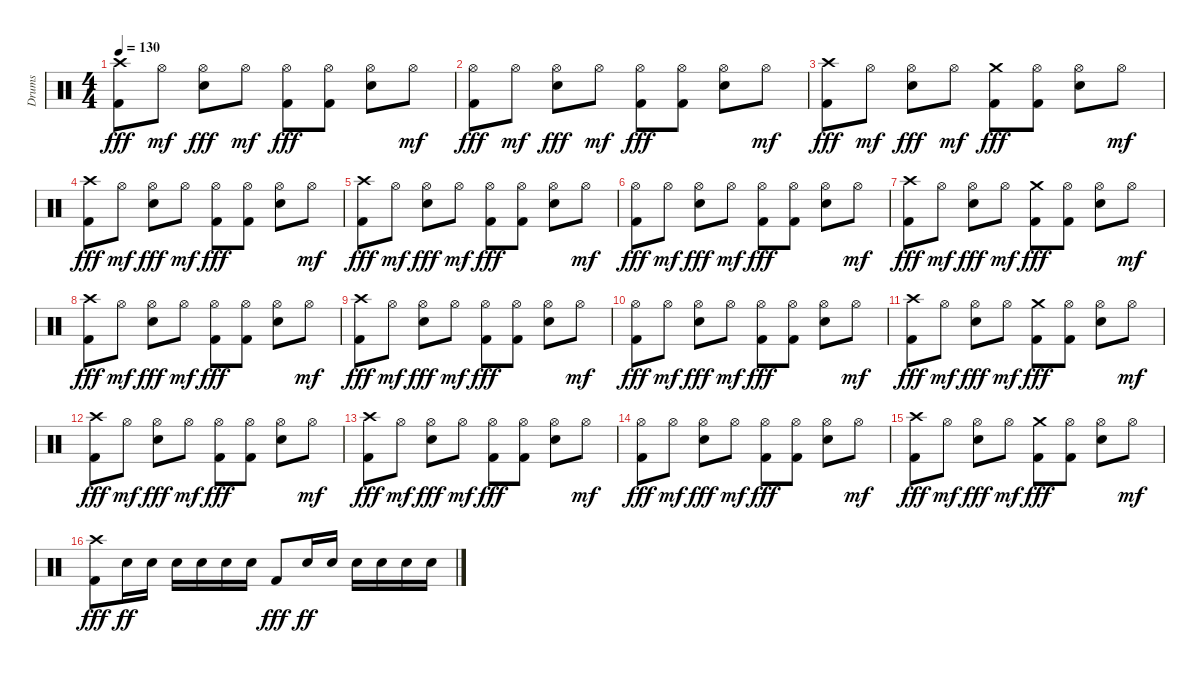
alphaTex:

\track ("Drums" "Drums") {instrument percussion}
\staff {score}
\articulation defaults
\ts (4 4)
\tempo 130
\clef neutral
\ks c
("Crash high (hit)" "Kick (hit) 2").8{dy fff} "Hi-Hat (open)".8{dy mf} ("Hi-Hat (open)" "Snare (hit) 2").8{dy fff} "Hi-Hat (open)".8{dy mf} ("Hi-Hat (open)" "Kick (hit) 2").8{dy fff} ("Hi-Hat (open)" "Kick (hit) 2").8 ("Hi-Hat (open)" "Snare (hit) 2").8 "Hi-Hat (open)".8{dy mf} |
("Hi-Hat (open)" "Kick (hit) 2").8{dy fff} "Hi-Hat (open)".8{dy mf} ("Hi-Hat (open)" "Snare (hit) 2").8{dy fff} "Hi-Hat (open)".8{dy mf} ("Hi-Hat (open)" "Kick (hit) 2").8{dy fff} ("Hi-Hat (open)" "Kick (hit) 2").8 ("Hi-Hat (open)" "Snare (hit) 2").8 "Hi-Hat (open)".8{dy mf} |
("Crash high (hit)" "Kick (hit) 2").8{dy fff} "Hi-Hat (open)".8{dy mf} ("Hi-Hat (open)" "Snare (hit) 2").8{dy fff} "Hi-Hat (open)".8{dy mf} ("Crash medium (hit)" "Kick (hit) 2").8{dy fff} ("Hi-Hat (open)" "Kick (hit) 2").8 ("Hi-Hat (open)" "Snare (hit) 2").8 "Hi-Hat (open)".8{dy mf} |
("Crash high (hit)" "Kick (hit) 2").8{dy fff} "Hi-Hat (open)".8{dy mf} ("Hi-Hat (open)" "Snare (hit) 2").8{dy fff} "Hi-Hat (open)".8{dy mf} ("Hi-Hat (open)" "Kick (hit) 2").8{dy fff} ("Hi-Hat (open)" "Kick (hit) 2").8 ("Hi-Hat (open)" "Snare (hit) 2").8 "Hi-Hat (open)".8{dy mf} |
("Crash high (hit)" "Kick (hit) 2").8{dy fff} "Hi-Hat (open)".8{dy mf} ("Hi-Hat (open)" "Snare (hit) 2").8{dy fff} "Hi-Hat (open)".8{dy mf} ("Hi-Hat (open)" "Kick (hit) 2").8{dy fff} ("Hi-Hat (open)" "Kick (hit) 2").8 ("Hi-Hat (open)" "Snare (hit) 2").8 "Hi-Hat (open)".8{dy mf} |
("Hi-Hat (open)" "Kick (hit) 2").8{dy fff} "Hi-Hat (open)".8{dy mf} ("Hi-Hat (open)" "Snare (hit) 2").8{dy fff} "Hi-Hat (open)".8{dy mf} ("Hi-Hat (open)" "Kick (hit) 2").8{dy fff} ("Hi-Hat (open)" "Kick (hit) 2").8 ("Hi-Hat (open)" "Snare (hit) 2").8 "Hi-Hat (open)".8{dy mf} |
("Crash high (hit)" "Kick (hit) 2").8{dy fff} "Hi-Hat (open)".8{dy mf} ("Hi-Hat (open)" "Snare (hit) 2").8{dy fff} "Hi-Hat (open)".8{dy mf} ("Crash medium (hit)" "Kick (hit) 2").8{dy fff} ("Hi-Hat (open)" "Kick (hit) 2").8 ("Hi-Hat (open)" "Snare (hit) 2").8 "Hi-Hat (open)".8{dy mf} |
("Crash high (hit)" "Kick (hit) 2").8{dy fff} "Hi-Hat (open)".8{dy mf} ("Hi-Hat (open)" "Snare (hit) 2").8{dy fff} "Hi-Hat (open)".8{dy mf} ("Hi-Hat (open)" "Kick (hit) 2").8{dy fff} ("Hi-Hat (open)" "Kick (hit) 2").8 ("Hi-Hat (open)" "Snare (hit) 2").8 "Hi-Hat (open)".8{dy mf} |
("Crash high (hit)" "Kick (hit) 2").8{dy fff} "Hi-Hat (open)".8{dy mf} ("Hi-Hat (open)" "Snare (hit) 2").8{dy fff} "Hi-Hat (open)".8{dy mf} ("Hi-Hat (open)" "Kick (hit) 2").8{dy fff} ("Hi-Hat (open)" "Kick (hit) 2").8 ("Hi-Hat (open)" "Snare (hit) 2").8 "Hi-Hat (open)".8{dy mf} |
("Hi-Hat (open)" "Kick (hit) 2").8{dy fff} "Hi-Hat (open)".8{dy mf} ("Hi-Hat (open)" "Snare (hit) 2").8{dy fff} "Hi-Hat (open)".8{dy mf} ("Hi-Hat (open)" "Kick (hit) 2").8{dy fff} ("Hi-Hat (open)" "Kick (hit) 2").8 ("Hi-Hat (open)" "Snare (hit) 2").8 "Hi-Hat (open)".8{dy mf} |
("Crash high (hit)" "Kick (hit) 2").8{dy fff} "Hi-Hat (open)".8{dy mf} ("Hi-Hat (open)" "Snare (hit) 2").8{dy fff} "Hi-Hat (open)".8{dy mf} ("Crash medium (hit)" "Kick (hit) 2").8{dy fff} ("Hi-Hat (open)" "Kick (hit) 2").8 ("Hi-Hat (open)" "Snare (hit) 2").8 "Hi-Hat (open)".8{dy mf} |
("Crash high (hit)" "Kick (hit) 2").8{dy fff} "Hi-Hat (open)".8{dy mf} ("Hi-Hat (open)" "Snare (hit) 2").8{dy fff} "Hi-Hat (open)".8{dy mf} ("Hi-Hat (open)" "Kick (hit) 2").8{dy fff} ("Hi-Hat (open)" "Kick (hit) 2").8 ("Hi-Hat (open)" "Snare (hit) 2").8 "Hi-Hat (open)".8{dy mf} |
("Crash high (hit)" "Kick (hit) 2").8{dy fff} "Hi-Hat (open)".8{dy mf} ("Hi-Hat (open)" "Snare (hit) 2").8{dy fff} "Hi-Hat (open)".8{dy mf} ("Hi-Hat (open)" "Kick (hit) 2").8{dy fff} ("Hi-Hat (open)" "Kick (hit) 2").8 ("Hi-Hat (open)" "Snare (hit) 2").8 "Hi-Hat (open)".8{dy mf} |
("Hi-Hat (open)" "Kick (hit) 2").8{dy fff} "Hi-Hat (open)".8{dy mf} ("Hi-Hat (open)" "Snare (hit) 2").8{dy fff} "Hi-Hat (open)".8{dy mf} ("Hi-Hat (open)" "Kick (hit) 2").8{dy fff} ("Hi-Hat (open)" "Kick (hit) 2").8 ("Hi-Hat (open)" "Snare (hit) 2").8 "Hi-Hat (open)".8{dy mf} |
("Crash high (hit)" "Kick (hit) 2").8{dy fff} "Hi-Hat (open)".8{dy mf} ("Hi-Hat (open)" "Snare (hit) 2").8{dy fff} "Hi-Hat (open)".8{dy mf} ("Crash medium (hit)" "Kick (hit) 2").8{dy fff} ("Hi-Hat (open)" "Kick (hit) 2").8 ("Hi-Hat (open)" "Snare (hit) 2").8 "Hi-Hat (open)".8{dy mf} |
("Crash high (hit)" "Kick (hit) 2").8{dy fff} "Snare (hit) 2".16{dy ff} "Snare (hit) 2".16 "Snare (hit) 2".16 "Snare (hit) 2".16 "Snare (hit) 2".16 "Snare (hit) 2".16 "Kick (hit) 2".8{dy fff} "Snare (hit) 2".16{dy ff} "Snare (hit) 2".16 "Snare (hit) 2".16 "Snare (hit) 2".16 "Snare (hit) 2".16 "Snare (hit) 2".16
